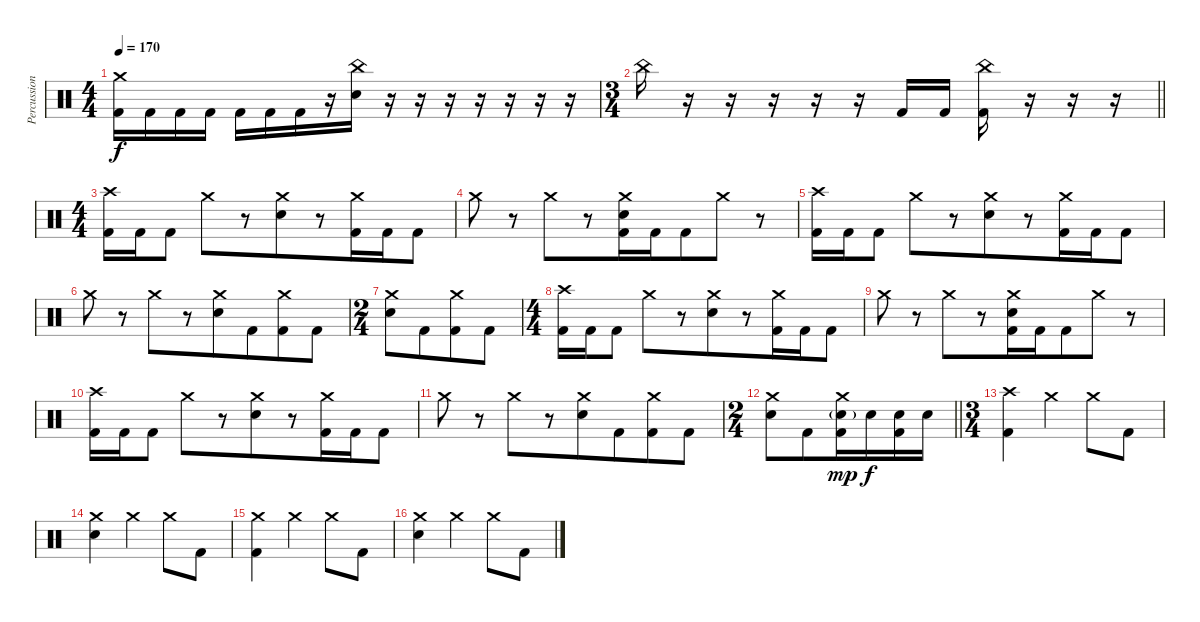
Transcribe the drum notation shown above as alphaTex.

\track ("Percussion" "Percussion") {instrument percussion}
\staff {score}
\articulation defaults
\ts (4 4)
\tempo 170
\clef neutral
\ks c
("Crash medium (hit)" "Kick (hit) 2").16{dy f} "Kick (hit) 2".16 "Kick (hit) 2".16 "Kick (hit) 2".16 "Kick (hit) 2".16 "Kick (hit) 2".16 "Kick (hit) 2".16{beam merge} r.16{beam merge} ("China (hit)" "Electric Snare (hit)").16 r.16 r.16{beam merge} r.16 r.16 r.16 r.16{beam merge} r.16 |
\ts (3 4)
\barLineRight lightlight "China (hit)".16
r.16 r.16 r.16{beam merge} r.16{beam merge} r.16 "Kick (hit) 2".16 "Kick (hit) 2".16 ("China (hit)" "Kick (hit) 2").16 r.16 r.16{beam merge} r.16 |
\ts (4 4)
\section ("" "")
("Crash high (hit)" "Kick (hit) 2").16 "Kick (hit) 2".16 "Kick (hit) 2".8 "Crash medium (hit)".8{beam merge} r.8 ("Crash medium (hit)" "Electric Snare (hit)").8{beam merge} r.8 ("Crash medium (hit)" "Kick (hit) 2").16 "Kick (hit) 2".16{beam merge} "Kick (hit) 2".8 |
"Crash medium (hit)".8 r.8 "Crash medium (hit)".8{beam merge} r.8 ("Crash medium (hit)" "Electric Snare (hit)" "Kick (hit) 2").16 "Kick (hit) 2".16{beam merge} "Kick (hit) 2".8{beam merge} "Crash medium (hit)".8 r.8 |
("Crash high (hit)" "Kick (hit) 2").16 "Kick (hit) 2".16 "Kick (hit) 2".8 "Crash medium (hit)".8{beam merge} r.8 ("Crash medium (hit)" "Electric Snare (hit)").8{beam merge} r.8 ("Crash medium (hit)" "Kick (hit) 2").16 "Kick (hit) 2".16{beam merge} "Kick (hit) 2".8 |
"Crash medium (hit)".8 r.8 "Crash medium (hit)".8{beam merge} r.8 ("Crash medium (hit)" "Electric Snare (hit)").8 "Kick (hit) 2".8{beam merge} ("Crash medium (hit)" "Kick (hit) 2").8 "Kick (hit) 2".8 |
\ts (2 4)
("Crash medium (hit)" "Electric Snare (hit)").8 "Kick (hit) 2".8{beam merge} ("Crash medium (hit)" "Kick (hit) 2").8 "Kick (hit) 2".8 |
\ts (4 4)
("Crash high (hit)" "Kick (hit) 2").16 "Kick (hit) 2".16 "Kick (hit) 2".8 "Crash medium (hit)".8{beam merge} r.8 ("Crash medium (hit)" "Electric Snare (hit)").8{beam merge} r.8 ("Crash medium (hit)" "Kick (hit) 2").16 "Kick (hit) 2".16{beam merge} "Kick (hit) 2".8 |
"Crash medium (hit)".8 r.8 "Crash medium (hit)".8{beam merge} r.8 ("Crash medium (hit)" "Electric Snare (hit)" "Kick (hit) 2").16 "Kick (hit) 2".16{beam merge} "Kick (hit) 2".8{beam merge} "Crash medium (hit)".8 r.8 |
("Crash high (hit)" "Kick (hit) 2").16 "Kick (hit) 2".16 "Kick (hit) 2".8 "Crash medium (hit)".8{beam merge} r.8 ("Crash medium (hit)" "Electric Snare (hit)").8{beam merge} r.8 ("Crash medium (hit)" "Kick (hit) 2").16 "Kick (hit) 2".16{beam merge} "Kick (hit) 2".8 |
"Crash medium (hit)".8 r.8 "Crash medium (hit)".8{beam merge} r.8 ("Crash medium (hit)" "Electric Snare (hit)").8 "Kick (hit) 2".8{beam merge} ("Crash medium (hit)" "Kick (hit) 2").8 "Kick (hit) 2".8 |
\ts (2 4)
\barLineRight lightlight
("Crash medium (hit)" "Electric Snare (hit)").8 "Kick (hit) 2".8{beam merge} ("Crash medium (hit)" "Electric Snare (hit)"{g} "Kick (hit) 2").16{dy mp} "Electric Snare (hit)".16{dy f} ("Electric Snare (hit)" "Kick (hit) 2").16 "Electric Snare (hit)".16 |
\ts (3 4)
\section ("" "")
("Crash high (hit)" "Kick (hit) 2").4 "Crash medium (hit)".4 "Crash medium (hit)".8 "Kick (hit) 2".8 |
("Crash medium (hit)" "Electric Snare (hit)").4 "Crash medium (hit)".4 "Crash medium (hit)".8 "Kick (hit) 2".8 |
("Crash medium (hit)" "Kick (hit) 2").4 "Crash medium (hit)".4 "Crash medium (hit)".8 "Kick (hit) 2".8 |
("Crash medium (hit)" "Electric Snare (hit)").4 "Crash medium (hit)".4 "Crash medium (hit)".8 "Kick (hit) 2".8
